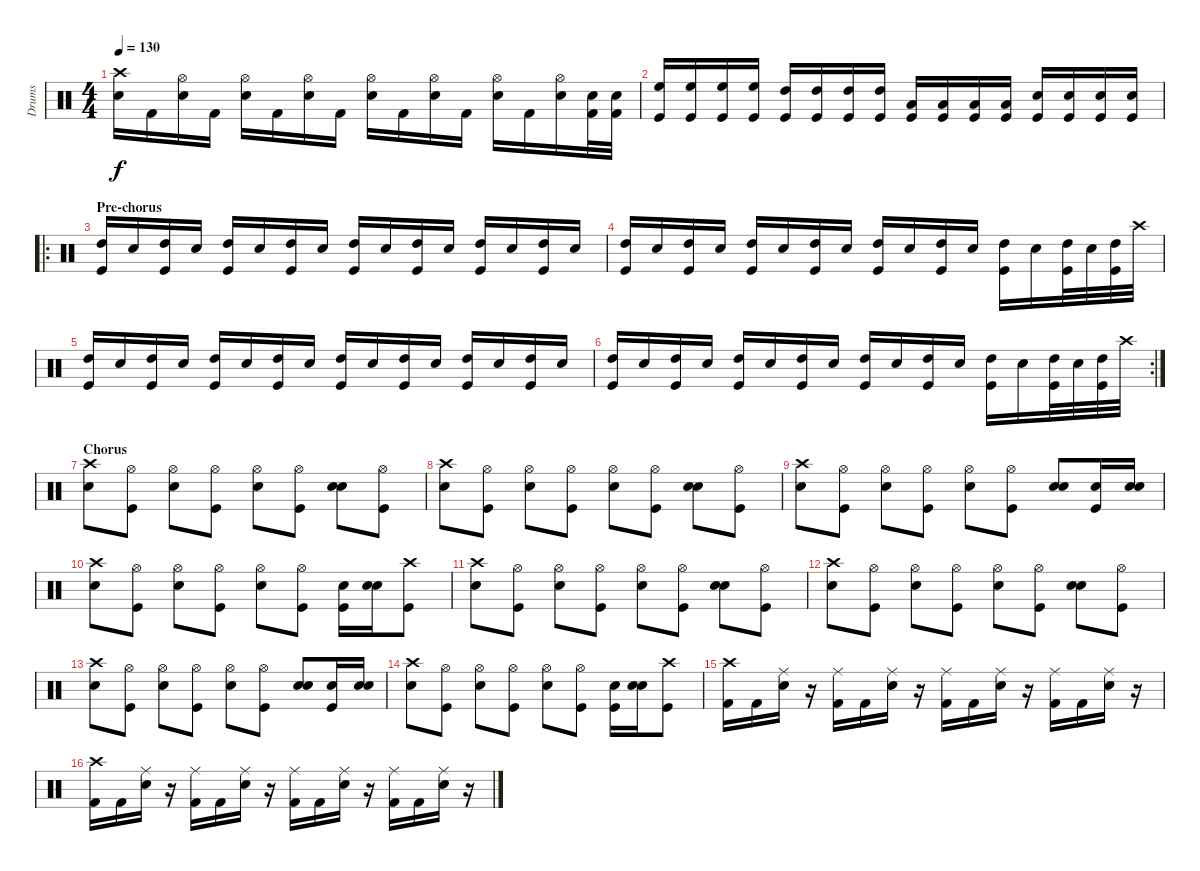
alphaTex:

\track ("Drums" "Drums") {instrument percussion}
\staff {score}
\articulation defaults
\ts (4 4)
\tempo 130
\clef neutral
\ks c
("Crash high (hit)" "Snare (hit) 2").16{dy f} "Kick (hit) 2".16 ("Snare (hit) 2" "Hi-Hat (open)").16 "Kick (hit) 2".16 ("Snare (hit) 2" "Hi-Hat (open)").16 "Kick (hit) 2".16 ("Snare (hit) 2" "Hi-Hat (open)").16 "Kick (hit) 2".16 ("Hi-Hat (open)" "Snare (hit) 2").16 "Kick (hit) 2".16 ("Hi-Hat (open)" "Snare (hit) 2").16 "Kick (hit) 2".16 ("Hi-Hat (open)" "Snare (hit) 2").16 "Kick (hit) 2".16 ("Hi-Hat (open)" "Snare (hit) 2").16 ("Electric Snare (hit)" "Kick (hit) 2").32 ("Electric Snare (hit)" "Kick (hit) 2").32 |
("High Floor Tom (hit)" "Kick (hit)").16 ("High Floor Tom (hit)" "Kick (hit)").16 ("High Floor Tom (hit)" "Kick (hit)").16 ("High Floor Tom (hit)" "Kick (hit)").16 ("High Tom (hit)" "Kick (hit)").16 ("High Tom (hit)" "Kick (hit)").16 ("High Tom (hit)" "Kick (hit)").16 ("High Tom (hit)" "Kick (hit)").16 ("Low Tom (hit)" "Kick (hit)").16 ("Low Tom (hit)" "Kick (hit)").16 ("Low Tom (hit)" "Kick (hit)").16 ("Low Tom (hit)" "Kick (hit)").16 ("Snare (hit) 2" "Kick (hit)").16 ("Snare (hit) 2" "Kick (hit)").16 ("Snare (hit) 2" "Kick (hit)").16 ("Snare (hit) 2" "Kick (hit)").16 |
\ro
\section ("" "Pre-chorus")
("High Tom (hit)" "Kick (hit)").16 "Electric Snare (hit)".16 ("High Tom (hit)" "Kick (hit)").16 "Electric Snare (hit)".16 ("High Tom (hit)" "Kick (hit)").16 "Electric Snare (hit)".16 ("High Tom (hit)" "Kick (hit)").16 "Electric Snare (hit)".16 ("High Tom (hit)" "Kick (hit)").16 "Electric Snare (hit)".16 ("High Tom (hit)" "Kick (hit)").16 "Electric Snare (hit)".16 ("High Tom (hit)" "Kick (hit)").16 "Electric Snare (hit)".16 ("High Tom (hit)" "Kick (hit)").16 "Electric Snare (hit)".16 |
("High Tom (hit)" "Kick (hit)").16 "Electric Snare (hit)".16 ("High Tom (hit)" "Kick (hit)").16 "Electric Snare (hit)".16 ("High Tom (hit)" "Kick (hit)").16 "Electric Snare (hit)".16 ("High Tom (hit)" "Kick (hit)").16 "Electric Snare (hit)".16 ("High Tom (hit)" "Kick (hit)").16 "Electric Snare (hit)".16 ("High Tom (hit)" "Kick (hit)").16 "Electric Snare (hit)".16 ("High Tom (hit)" "Kick (hit)").16 "Electric Snare (hit)".16 ("High Tom (hit)" "Kick (hit)").32 "Electric Snare (hit)".32 ("High Tom (hit)" "Kick (hit)").32 "Crash high (hit)".32 |
("High Tom (hit)" "Kick (hit)").16 "Electric Snare (hit)".16 ("High Tom (hit)" "Kick (hit)").16 "Electric Snare (hit)".16 ("High Tom (hit)" "Kick (hit)").16 "Electric Snare (hit)".16 ("High Tom (hit)" "Kick (hit)").16 "Electric Snare (hit)".16 ("High Tom (hit)" "Kick (hit)").16 "Electric Snare (hit)".16 ("High Tom (hit)" "Kick (hit)").16 "Electric Snare (hit)".16 ("High Tom (hit)" "Kick (hit)").16 "Electric Snare (hit)".16 ("High Tom (hit)" "Kick (hit)").16 "Electric Snare (hit)".16 |
\rc 2
("High Tom (hit)" "Kick (hit)").16 "Electric Snare (hit)".16 ("High Tom (hit)" "Kick (hit)").16 "Electric Snare (hit)".16 ("High Tom (hit)" "Kick (hit)").16 "Electric Snare (hit)".16 ("High Tom (hit)" "Kick (hit)").16 "Electric Snare (hit)".16 ("High Tom (hit)" "Kick (hit)").16 "Electric Snare (hit)".16 ("High Tom (hit)" "Kick (hit)").16 "Electric Snare (hit)".16 ("High Tom (hit)" "Kick (hit)").16 "Electric Snare (hit)".16 ("High Tom (hit)" "Kick (hit)").32 "Electric Snare (hit)".32 ("High Tom (hit)" "Kick (hit)").32 "Crash high (hit)".32 |
\section ("" "Chorus")
("Crash high (hit)" "Electric Snare (hit)").8 ("Hi-Hat (open)" "Kick (hit)").8 ("Electric Snare (hit)" "Hi-Hat (open)").8 ("Hi-Hat (open)" "Kick (hit)").8 ("Hi-Hat (open)" "Electric Snare (hit)").8 ("Hi-Hat (open)" "Kick (hit)").8 ("Electric Snare (hit)" "Electric Snare (hit)").8 ("Hi-Hat (open)" "Kick (hit)").8 |
("Crash high (hit)" "Electric Snare (hit)").8 ("Hi-Hat (open)" "Kick (hit)").8 ("Electric Snare (hit)" "Hi-Hat (open)").8 ("Hi-Hat (open)" "Kick (hit)").8 ("Hi-Hat (open)" "Electric Snare (hit)").8 ("Hi-Hat (open)" "Kick (hit)").8 ("Electric Snare (hit)" "Electric Snare (hit)").8 ("Hi-Hat (open)" "Kick (hit)").8 |
("Crash high (hit)" "Electric Snare (hit)").8 ("Hi-Hat (open)" "Kick (hit)").8 ("Electric Snare (hit)" "Hi-Hat (open)").8 ("Hi-Hat (open)" "Kick (hit)").8 ("Hi-Hat (open)" "Electric Snare (hit)").8 ("Hi-Hat (open)" "Kick (hit)").8 ("Electric Snare (hit)" "Electric Snare (hit)").8 ("Snare (hit) 2" "Kick (hit)").16 ("Snare (hit) 2" "Electric Snare (hit)").16 |
("Crash high (hit)" "Electric Snare (hit)").8 ("Hi-Hat (open)" "Kick (hit)").8 ("Electric Snare (hit)" "Hi-Hat (open)").8 ("Hi-Hat (open)" "Kick (hit)").8 ("Hi-Hat (open)" "Electric Snare (hit)").8 ("Hi-Hat (open)" "Kick (hit)").8 ("Snare (hit) 2" "Kick (hit)").16 ("Snare (hit) 2" "Electric Snare (hit)").16 ("Crash high (hit)" "Kick (hit)").8 |
("Crash high (hit)" "Electric Snare (hit)").8 ("Hi-Hat (open)" "Kick (hit)").8 ("Electric Snare (hit)" "Hi-Hat (open)").8 ("Hi-Hat (open)" "Kick (hit)").8 ("Hi-Hat (open)" "Electric Snare (hit)").8 ("Hi-Hat (open)" "Kick (hit)").8 ("Electric Snare (hit)" "Electric Snare (hit)").8 ("Hi-Hat (open)" "Kick (hit)").8 |
("Crash high (hit)" "Electric Snare (hit)").8 ("Hi-Hat (open)" "Kick (hit)").8 ("Electric Snare (hit)" "Hi-Hat (open)").8 ("Hi-Hat (open)" "Kick (hit)").8 ("Hi-Hat (open)" "Electric Snare (hit)").8 ("Hi-Hat (open)" "Kick (hit)").8 ("Electric Snare (hit)" "Electric Snare (hit)").8 ("Hi-Hat (open)" "Kick (hit)").8 |
("Crash high (hit)" "Electric Snare (hit)").8 ("Hi-Hat (open)" "Kick (hit)").8 ("Electric Snare (hit)" "Hi-Hat (open)").8 ("Hi-Hat (open)" "Kick (hit)").8 ("Hi-Hat (open)" "Electric Snare (hit)").8 ("Hi-Hat (open)" "Kick (hit)").8 ("Electric Snare (hit)" "Electric Snare (hit)").8 ("Snare (hit) 2" "Kick (hit)").16 ("Snare (hit) 2" "Electric Snare (hit)").16 |
("Crash high (hit)" "Electric Snare (hit)").8 ("Hi-Hat (open)" "Kick (hit)").8 ("Electric Snare (hit)" "Hi-Hat (open)").8 ("Hi-Hat (open)" "Kick (hit)").8 ("Hi-Hat (open)" "Electric Snare (hit)").8 ("Hi-Hat (open)" "Kick (hit)").8 ("Snare (hit) 2" "Kick (hit)").16 ("Snare (hit) 2" "Electric Snare (hit)").16 ("Crash high (hit)" "Kick (hit)").8 |
("Crash high (hit)" "Kick (hit) 2").16 "Kick (hit) 2".16 ("Ride (middle)" "Snare (hit) 2").16 r.16 ("Ride (middle)" "Kick (hit) 2").16 "Kick (hit) 2".16 ("Ride (middle)" "Snare (hit) 2").16 r.16 ("Ride (middle)" "Kick (hit) 2").16 "Kick (hit) 2".16 ("Ride (middle)" "Snare (hit) 2").16 r.16 ("Ride (middle)" "Kick (hit) 2").16 "Kick (hit) 2".16 ("Ride (middle)" "Snare (hit) 2").16 r.16 |
("Crash high (hit)" "Kick (hit) 2").16 "Kick (hit) 2".16 ("Ride (middle)" "Snare (hit) 2").16 r.16 ("Ride (middle)" "Kick (hit) 2").16 "Kick (hit) 2".16 ("Ride (middle)" "Snare (hit) 2").16 r.16 ("Ride (middle)" "Kick (hit) 2").16 "Kick (hit) 2".16 ("Ride (middle)" "Snare (hit) 2").16 r.16 ("Ride (middle)" "Kick (hit) 2").16 "Kick (hit) 2".16 ("Ride (middle)" "Snare (hit) 2").16 r.16
